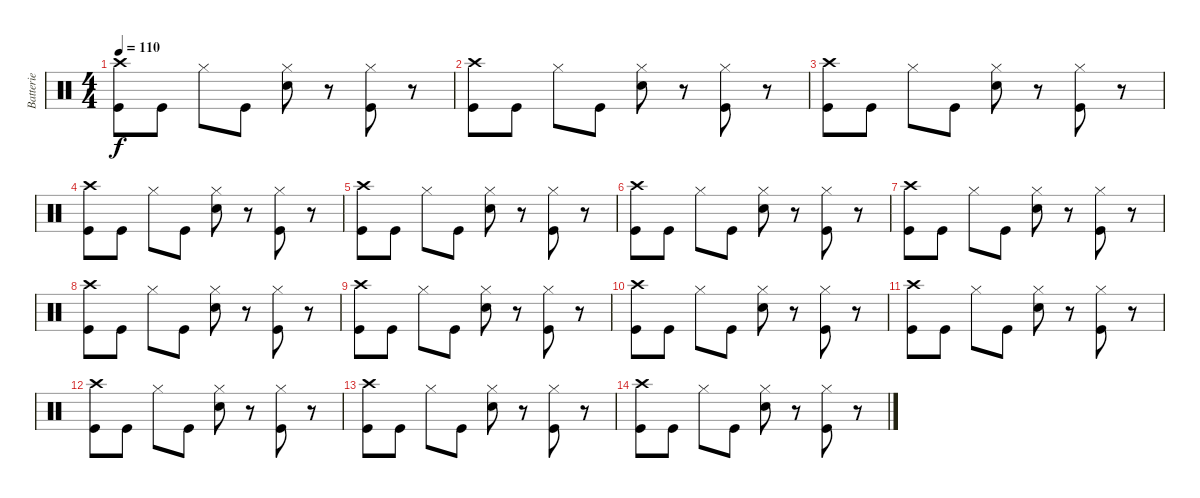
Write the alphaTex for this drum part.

\track ("Batterie" "Batterie") {instrument percussion}
\staff {score}
\articulation defaults
\ts (4 4)
\tempo 110
\clef neutral
\ks c
("Crash high (hit)" "Kick (hit)").8{dy f} "Kick (hit)".8 "Hi-Hat (closed)".8 "Kick (hit)".8 ("Hi-Hat (closed)" "Snare (hit) 2").8 r.8 ("Hi-Hat (closed)" "Kick (hit)").8 r.8 |
("Crash high (hit)" "Kick (hit)").8 "Kick (hit)".8 "Hi-Hat (closed)".8 "Kick (hit)".8 ("Hi-Hat (closed)" "Snare (hit) 2").8 r.8 ("Hi-Hat (closed)" "Kick (hit)").8 r.8 |
("Crash high (hit)" "Kick (hit)").8 "Kick (hit)".8 "Hi-Hat (closed)".8 "Kick (hit)".8 ("Hi-Hat (closed)" "Snare (hit) 2").8 r.8 ("Hi-Hat (closed)" "Kick (hit)").8 r.8 |
("Crash high (hit)" "Kick (hit)").8 "Kick (hit)".8 "Hi-Hat (closed)".8 "Kick (hit)".8 ("Hi-Hat (closed)" "Snare (hit) 2").8 r.8 ("Hi-Hat (closed)" "Kick (hit)").8 r.8 |
("Crash high (hit)" "Kick (hit)").8 "Kick (hit)".8 "Hi-Hat (closed)".8 "Kick (hit)".8 ("Hi-Hat (closed)" "Snare (hit) 2").8 r.8 ("Hi-Hat (closed)" "Kick (hit)").8 r.8 |
("Crash high (hit)" "Kick (hit)").8 "Kick (hit)".8 "Hi-Hat (closed)".8 "Kick (hit)".8 ("Hi-Hat (closed)" "Snare (hit) 2").8 r.8 ("Hi-Hat (closed)" "Kick (hit)").8 r.8 |
("Crash high (hit)" "Kick (hit)").8 "Kick (hit)".8 "Hi-Hat (closed)".8 "Kick (hit)".8 ("Hi-Hat (closed)" "Snare (hit) 2").8 r.8 ("Hi-Hat (closed)" "Kick (hit)").8 r.8 |
("Crash high (hit)" "Kick (hit)").8 "Kick (hit)".8 "Hi-Hat (closed)".8 "Kick (hit)".8 ("Hi-Hat (closed)" "Snare (hit) 2").8 r.8 ("Hi-Hat (closed)" "Kick (hit)").8 r.8 |
("Crash high (hit)" "Kick (hit)").8 "Kick (hit)".8 "Hi-Hat (closed)".8 "Kick (hit)".8 ("Hi-Hat (closed)" "Snare (hit) 2").8 r.8 ("Hi-Hat (closed)" "Kick (hit)").8 r.8 |
("Crash high (hit)" "Kick (hit)").8 "Kick (hit)".8 "Hi-Hat (closed)".8 "Kick (hit)".8 ("Hi-Hat (closed)" "Snare (hit) 2").8 r.8 ("Hi-Hat (closed)" "Kick (hit)").8 r.8 |
("Crash high (hit)" "Kick (hit)").8 "Kick (hit)".8 "Hi-Hat (closed)".8 "Kick (hit)".8 ("Hi-Hat (closed)" "Snare (hit) 2").8 r.8 ("Hi-Hat (closed)" "Kick (hit)").8 r.8 |
("Crash high (hit)" "Kick (hit)").8 "Kick (hit)".8 "Hi-Hat (closed)".8 "Kick (hit)".8 ("Hi-Hat (closed)" "Snare (hit) 2").8 r.8 ("Hi-Hat (closed)" "Kick (hit)").8 r.8 |
("Crash high (hit)" "Kick (hit)").8 "Kick (hit)".8 "Hi-Hat (closed)".8 "Kick (hit)".8 ("Hi-Hat (closed)" "Snare (hit) 2").8 r.8 ("Hi-Hat (closed)" "Kick (hit)").8 r.8 |
("Crash high (hit)" "Kick (hit)").8 "Kick (hit)".8 "Hi-Hat (closed)".8 "Kick (hit)".8 ("Hi-Hat (closed)" "Snare (hit) 2").8 r.8 ("Hi-Hat (closed)" "Kick (hit)").8 r.8
